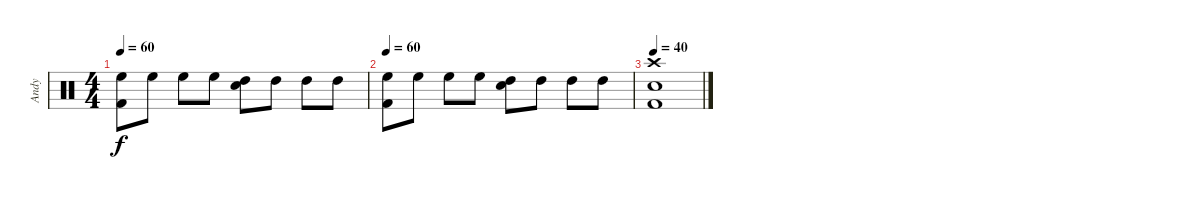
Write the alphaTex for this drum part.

\track ("Andy" "Andy") {instrument percussion}
\staff {score}
\articulation defaults
\ts (4 4)
\tempo 90
\tempo 60
\clef neutral
\ks c
("High Floor Tom (hit)" "Kick (hit) 2").8{dy f} "High Floor Tom (hit)".8 "High Floor Tom (hit)".8 "High Floor Tom (hit)".8 ("High Tom (hit)" "Snare (hit) 2").8 "High Tom (hit)".8 "High Tom (hit)".8 "High Tom (hit)".8 |
\tempo 60
("High Floor Tom (hit)" "Kick (hit) 2").8 "High Floor Tom (hit)".8 "High Floor Tom (hit)".8 "High Floor Tom (hit)".8 ("High Tom (hit)" "Snare (hit) 2").8 "High Tom (hit)".8 "High Tom (hit)".8 "High Tom (hit)".8 |
\tempo 40
("Crash high (hit)" "Snare (hit) 2" "Kick (hit) 2").1
